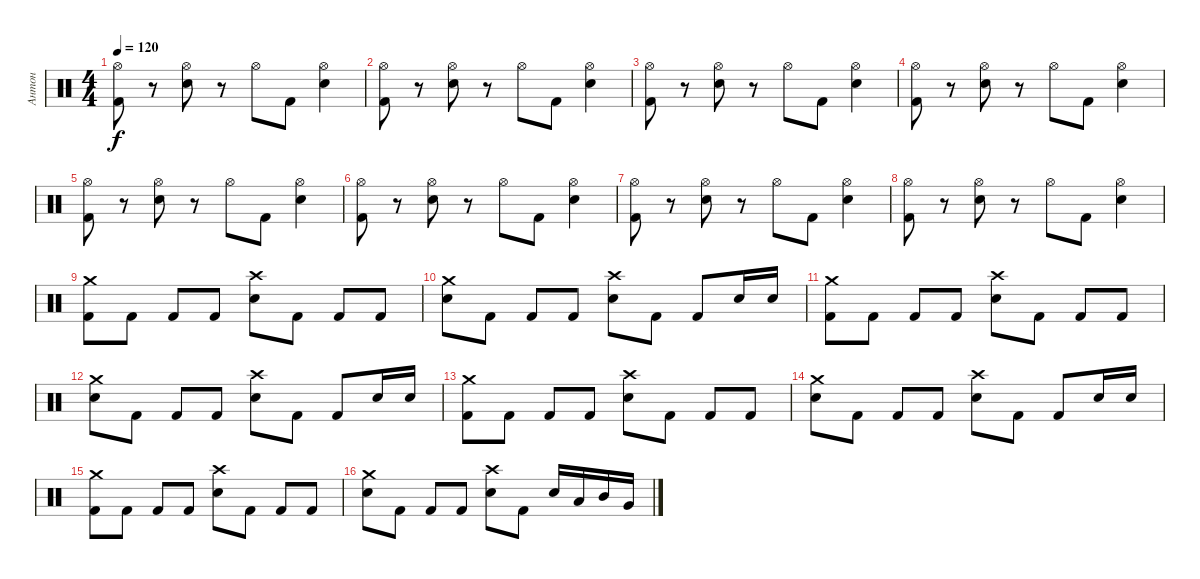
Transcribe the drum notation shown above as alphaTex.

\track ("Антон" "Антон") {instrument percussion}
\staff {score}
\articulation defaults
\ts (4 4)
\tempo 120
\clef neutral
\ks c
("Hi-Hat (open)" "Kick (hit) 2").8{dy f} r.8 ("Hi-Hat (open)" "Electric Snare (hit)").8 r.8 "Hi-Hat (open)".8 "Kick (hit) 2".8 ("Hi-Hat (open)" "Electric Snare (hit)").4 |
("Hi-Hat (open)" "Kick (hit) 2").8 r.8 ("Hi-Hat (open)" "Electric Snare (hit)").8 r.8 "Hi-Hat (open)".8 "Kick (hit) 2".8 ("Hi-Hat (open)" "Electric Snare (hit)").4 |
("Hi-Hat (open)" "Kick (hit) 2").8 r.8 ("Hi-Hat (open)" "Electric Snare (hit)").8 r.8 "Hi-Hat (open)".8 "Kick (hit) 2".8 ("Hi-Hat (open)" "Electric Snare (hit)").4 |
("Hi-Hat (open)" "Kick (hit) 2").8 r.8 ("Hi-Hat (open)" "Electric Snare (hit)").8 r.8 "Hi-Hat (open)".8 "Kick (hit) 2".8 ("Hi-Hat (open)" "Electric Snare (hit)").4 |
("Hi-Hat (open)" "Kick (hit) 2").8 r.8 ("Hi-Hat (open)" "Electric Snare (hit)").8 r.8 "Hi-Hat (open)".8 "Kick (hit) 2".8 ("Hi-Hat (open)" "Electric Snare (hit)").4 |
("Hi-Hat (open)" "Kick (hit) 2").8 r.8 ("Hi-Hat (open)" "Electric Snare (hit)").8 r.8 "Hi-Hat (open)".8 "Kick (hit) 2".8 ("Hi-Hat (open)" "Electric Snare (hit)").4 |
("Hi-Hat (open)" "Kick (hit) 2").8 r.8 ("Hi-Hat (open)" "Electric Snare (hit)").8 r.8 "Hi-Hat (open)".8 "Kick (hit) 2".8 ("Hi-Hat (open)" "Electric Snare (hit)").4 |
("Hi-Hat (open)" "Kick (hit) 2").8 r.8 ("Hi-Hat (open)" "Electric Snare (hit)").8 r.8 "Hi-Hat (open)".8 "Kick (hit) 2".8 ("Hi-Hat (open)" "Electric Snare (hit)").4 |
("Crash medium (hit)" "Kick (hit) 2").8 "Kick (hit) 2".8 "Kick (hit) 2".8 "Kick (hit) 2".8 ("Crash high (hit)" "Electric Snare (hit)").8 "Kick (hit) 2".8 "Kick (hit) 2".8 "Kick (hit) 2".8 |
("Crash medium (hit)" "Electric Snare (hit)").8 "Kick (hit) 2".8 "Kick (hit) 2".8 "Kick (hit) 2".8 ("Crash high (hit)" "Electric Snare (hit)").8 "Kick (hit) 2".8 "Kick (hit) 2".8 "Electric Snare (hit)".16 "Electric Snare (hit)".16 |
("Crash medium (hit)" "Kick (hit) 2").8 "Kick (hit) 2".8 "Kick (hit) 2".8 "Kick (hit) 2".8 ("Crash high (hit)" "Electric Snare (hit)").8 "Kick (hit) 2".8 "Kick (hit) 2".8 "Kick (hit) 2".8 |
("Crash medium (hit)" "Electric Snare (hit)").8 "Kick (hit) 2".8 "Kick (hit) 2".8 "Kick (hit) 2".8 ("Crash high (hit)" "Electric Snare (hit)").8 "Kick (hit) 2".8 "Kick (hit) 2".8 "Electric Snare (hit)".16 "Electric Snare (hit)".16 |
("Crash medium (hit)" "Kick (hit) 2").8 "Kick (hit) 2".8 "Kick (hit) 2".8 "Kick (hit) 2".8 ("Crash high (hit)" "Electric Snare (hit)").8 "Kick (hit) 2".8 "Kick (hit) 2".8 "Kick (hit) 2".8 |
("Crash medium (hit)" "Electric Snare (hit)").8 "Kick (hit) 2".8 "Kick (hit) 2".8 "Kick (hit) 2".8 ("Crash high (hit)" "Electric Snare (hit)").8 "Kick (hit) 2".8 "Kick (hit) 2".8 "Electric Snare (hit)".16 "Electric Snare (hit)".16 |
("Crash medium (hit)" "Kick (hit) 2").8 "Kick (hit) 2".8 "Kick (hit) 2".8 "Kick (hit) 2".8 ("Crash high (hit)" "Electric Snare (hit)").8 "Kick (hit) 2".8 "Kick (hit) 2".8 "Kick (hit) 2".8 |
("Crash medium (hit)" "Electric Snare (hit)").8 "Kick (hit) 2".8 "Kick (hit) 2".8 "Kick (hit) 2".8 ("Crash high (hit)" "Electric Snare (hit)").8 "Kick (hit) 2".8 "Electric Snare (hit)".16 "Low Tom (hit)".16 "Mid Tom (hit)".16 "Very Low Tom (hit)".16
